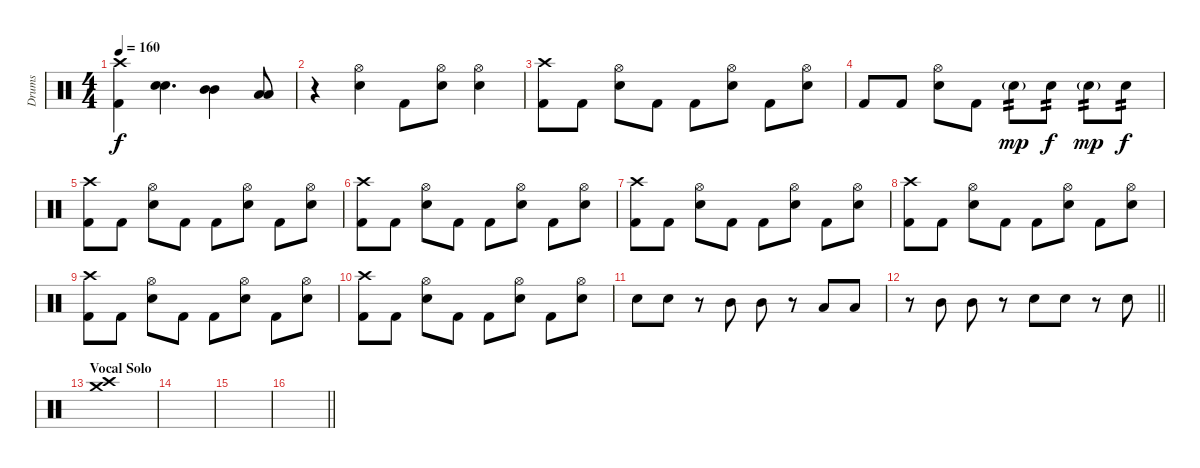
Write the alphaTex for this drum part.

\track ("Drums" "Drums") {instrument percussion}
\staff {score}
\articulation defaults
\ts (4 4)
\tempo 160
\clef neutral
\ks c
("Crash high (hit)" "Kick (hit) 2").4{dy f} ("Electric Snare (hit)" "Electric Snare (hit)").4{d bu 240} ("Mid Tom (hit)" "Mid Tom (hit)").4{bu 480} ("Low Tom (hit)" "Low Tom (hit)").8{bu 480} |
r.4 ("Hi-Hat (open)" "Electric Snare (hit)").4 "Kick (hit) 2".8 ("Hi-Hat (open)" "Electric Snare (hit)").8 ("Hi-Hat (open)" "Electric Snare (hit)").4 |
("Crash high (hit)" "Kick (hit) 2").8 "Kick (hit) 2".8 ("Hi-Hat (open)" "Electric Snare (hit)").8 "Kick (hit) 2".8 "Kick (hit) 2".8 ("Hi-Hat (open)" "Electric Snare (hit)").8 "Kick (hit) 2".8 ("Hi-Hat (open)" "Electric Snare (hit)").8 |
"Kick (hit) 2".8 "Kick (hit) 2".8 ("Hi-Hat (open)" "Electric Snare (hit)").8 "Kick (hit) 2".8 "Electric Snare (hit)"{g}.8{tp 2 dy mp} "Electric Snare (hit)".8{tp 2 dy f} "Electric Snare (hit)"{g}.8{tp 2 dy mp} "Electric Snare (hit)".8{tp 2 dy f} |
("Crash high (hit)" "Kick (hit) 2").8 "Kick (hit) 2".8 ("Hi-Hat (open)" "Electric Snare (hit)").8 "Kick (hit) 2".8 "Kick (hit) 2".8 ("Hi-Hat (open)" "Electric Snare (hit)").8 "Kick (hit) 2".8 ("Hi-Hat (open)" "Electric Snare (hit)").8 |
("Crash high (hit)" "Kick (hit) 2").8 "Kick (hit) 2".8 ("Hi-Hat (open)" "Electric Snare (hit)").8 "Kick (hit) 2".8 "Kick (hit) 2".8 ("Hi-Hat (open)" "Electric Snare (hit)").8 "Kick (hit) 2".8 ("Hi-Hat (open)" "Electric Snare (hit)").8 |
("Crash high (hit)" "Kick (hit) 2").8 "Kick (hit) 2".8 ("Hi-Hat (open)" "Electric Snare (hit)").8 "Kick (hit) 2".8 "Kick (hit) 2".8 ("Hi-Hat (open)" "Electric Snare (hit)").8 "Kick (hit) 2".8 ("Hi-Hat (open)" "Electric Snare (hit)").8 |
("Crash high (hit)" "Kick (hit) 2").8 "Kick (hit) 2".8 ("Hi-Hat (open)" "Electric Snare (hit)").8 "Kick (hit) 2".8 "Kick (hit) 2".8 ("Hi-Hat (open)" "Electric Snare (hit)").8 "Kick (hit) 2".8 ("Hi-Hat (open)" "Electric Snare (hit)").8 |
("Crash high (hit)" "Kick (hit) 2").8 "Kick (hit) 2".8 ("Hi-Hat (open)" "Electric Snare (hit)").8 "Kick (hit) 2".8 "Kick (hit) 2".8 ("Hi-Hat (open)" "Electric Snare (hit)").8 "Kick (hit) 2".8 ("Hi-Hat (open)" "Electric Snare (hit)").8 |
("Crash high (hit)" "Kick (hit) 2").8 "Kick (hit) 2".8 ("Hi-Hat (open)" "Electric Snare (hit)").8 "Kick (hit) 2".8 "Kick (hit) 2".8 ("Hi-Hat (open)" "Electric Snare (hit)").8 "Kick (hit) 2".8 ("Hi-Hat (open)" "Electric Snare (hit)").8 |
"Electric Snare (hit)".8 "Electric Snare (hit)".8 r.8 "Mid Tom (hit)".8 "Mid Tom (hit)".8 r.8 "Low Tom (hit)".8 "Low Tom (hit)".8 |
\barLineRight lightlight
r.8 "Mid Tom (hit)".8 "Mid Tom (hit)".8 r.8 "Electric Snare (hit)".8 "Electric Snare (hit)".8 r.8 "Electric Snare (hit)".8 |
\section ("" "Vocal Solo")
("Crash high (hit)" "Crash medium (hit)").1 |
|
|
\barLineRight lightlight
